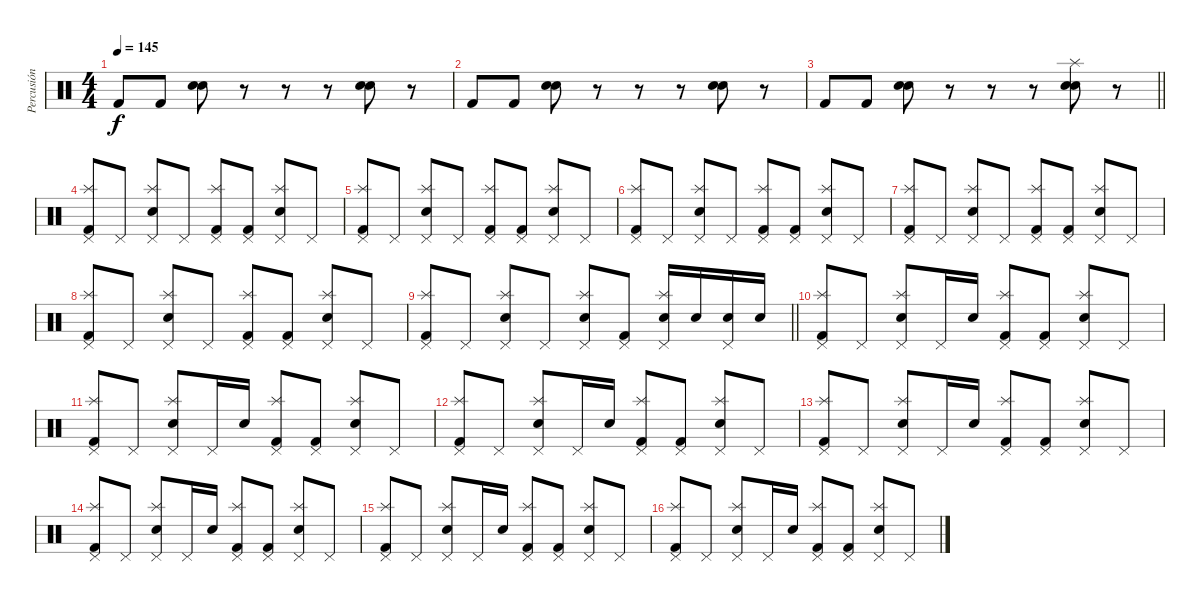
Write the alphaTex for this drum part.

\track ("Percusión" "Percusión") {instrument percussion}
\staff {score}
\articulation defaults
\ts (4 4)
\tempo 145
\clef neutral
\ks c "Kick (hit) 2".8{dy f} "Kick (hit) 2".8
("Electric Snare (hit)" "Electric Snare (hit)").8{bd 60} r.8 r.8 r.8 ("Electric Snare (hit)" "Electric Snare (hit)").8{bd 60} r.8 |
"Kick (hit) 2".8 "Kick (hit) 2".8 ("Electric Snare (hit)" "Electric Snare (hit)").8{bd 60} r.8 r.8 r.8 ("Electric Snare (hit)" "Electric Snare (hit)").8{bd 60} r.8 |
\barLineRight lightlight "Kick (hit) 2".8 "Kick (hit) 2".8
("Electric Snare (hit)" "Electric Snare (hit)").8{bd 60} r.8 r.8 r.8 ("Splash (hit)" "Electric Snare (hit)" "Electric Snare (hit)").8{bd 60} r.8 |
("Splash (hit)" "Pedal Hi-Hat (hit)" "Kick (hit) 2").8 "Pedal Hi-Hat (hit)".8 ("Splash (hit)" "Pedal Hi-Hat (hit)" "Electric Snare (hit)").8 "Pedal Hi-Hat (hit)".8 ("Splash (hit)" "Pedal Hi-Hat (hit)" "Kick (hit) 2").8 ("Pedal Hi-Hat (hit)" "Kick (hit) 2").8 ("Splash (hit)" "Pedal Hi-Hat (hit)" "Electric Snare (hit)").8 "Pedal Hi-Hat (hit)".8 |
("Splash (hit)" "Pedal Hi-Hat (hit)" "Kick (hit) 2").8 "Pedal Hi-Hat (hit)".8 ("Splash (hit)" "Pedal Hi-Hat (hit)" "Electric Snare (hit)").8 "Pedal Hi-Hat (hit)".8 ("Splash (hit)" "Pedal Hi-Hat (hit)" "Kick (hit) 2").8 ("Pedal Hi-Hat (hit)" "Kick (hit) 2").8 ("Splash (hit)" "Pedal Hi-Hat (hit)" "Electric Snare (hit)").8 "Pedal Hi-Hat (hit)".8 |
("Splash (hit)" "Pedal Hi-Hat (hit)" "Kick (hit) 2").8 "Pedal Hi-Hat (hit)".8 ("Splash (hit)" "Pedal Hi-Hat (hit)" "Electric Snare (hit)").8 "Pedal Hi-Hat (hit)".8 ("Splash (hit)" "Pedal Hi-Hat (hit)" "Kick (hit) 2").8 ("Pedal Hi-Hat (hit)" "Kick (hit) 2").8 ("Splash (hit)" "Pedal Hi-Hat (hit)" "Electric Snare (hit)").8 "Pedal Hi-Hat (hit)".8 |
("Splash (hit)" "Pedal Hi-Hat (hit)" "Kick (hit) 2").8 "Pedal Hi-Hat (hit)".8 ("Splash (hit)" "Pedal Hi-Hat (hit)" "Electric Snare (hit)").8 "Pedal Hi-Hat (hit)".8 ("Splash (hit)" "Pedal Hi-Hat (hit)" "Kick (hit) 2").8 ("Pedal Hi-Hat (hit)" "Kick (hit) 2").8 ("Splash (hit)" "Pedal Hi-Hat (hit)" "Electric Snare (hit)").8 "Pedal Hi-Hat (hit)".8 |
("Splash (hit)" "Pedal Hi-Hat (hit)" "Kick (hit) 2").8 "Pedal Hi-Hat (hit)".8 ("Splash (hit)" "Pedal Hi-Hat (hit)" "Electric Snare (hit)").8 "Pedal Hi-Hat (hit)".8 ("Splash (hit)" "Pedal Hi-Hat (hit)" "Kick (hit) 2").8 ("Pedal Hi-Hat (hit)" "Kick (hit) 2").8 ("Splash (hit)" "Pedal Hi-Hat (hit)" "Electric Snare (hit)").8 "Pedal Hi-Hat (hit)".8 |
\barLineRight lightlight
("Splash (hit)" "Pedal Hi-Hat (hit)" "Kick (hit) 2").8 "Pedal Hi-Hat (hit)".8 ("Splash (hit)" "Pedal Hi-Hat (hit)" "Electric Snare (hit)").8 "Pedal Hi-Hat (hit)".8 ("Splash (hit)" "Pedal Hi-Hat (hit)" "Electric Snare (hit)").8 ("Pedal Hi-Hat (hit)" "Kick (hit) 2").8 ("Splash (hit)" "Pedal Hi-Hat (hit)" "Electric Snare (hit)").16 "Electric Snare (hit)".16 ("Pedal Hi-Hat (hit)" "Electric Snare (hit)").16 "Electric Snare (hit)".16 |
("Pedal Hi-Hat (hit)" "Splash (hit)" "Kick (hit) 2").8 "Pedal Hi-Hat (hit)".8 ("Pedal Hi-Hat (hit)" "Splash (hit)" "Electric Snare (hit)").8 "Pedal Hi-Hat (hit)".16 "Electric Snare (hit)".16 ("Pedal Hi-Hat (hit)" "Splash (hit)" "Kick (hit) 2").8 ("Pedal Hi-Hat (hit)" "Kick (hit) 2").8 ("Pedal Hi-Hat (hit)" "Splash (hit)" "Electric Snare (hit)").8 "Pedal Hi-Hat (hit)".8 |
("Pedal Hi-Hat (hit)" "Splash (hit)" "Kick (hit) 2").8 "Pedal Hi-Hat (hit)".8 ("Pedal Hi-Hat (hit)" "Splash (hit)" "Electric Snare (hit)").8 "Pedal Hi-Hat (hit)".16 "Electric Snare (hit)".16 ("Pedal Hi-Hat (hit)" "Splash (hit)" "Kick (hit) 2").8 ("Pedal Hi-Hat (hit)" "Kick (hit) 2").8 ("Pedal Hi-Hat (hit)" "Splash (hit)" "Electric Snare (hit)").8 "Pedal Hi-Hat (hit)".8 |
("Pedal Hi-Hat (hit)" "Splash (hit)" "Kick (hit) 2").8 "Pedal Hi-Hat (hit)".8 ("Pedal Hi-Hat (hit)" "Splash (hit)" "Electric Snare (hit)").8 "Pedal Hi-Hat (hit)".16 "Electric Snare (hit)".16 ("Pedal Hi-Hat (hit)" "Splash (hit)" "Kick (hit) 2").8 ("Pedal Hi-Hat (hit)" "Kick (hit) 2").8 ("Pedal Hi-Hat (hit)" "Splash (hit)" "Electric Snare (hit)").8 "Pedal Hi-Hat (hit)".8 |
("Pedal Hi-Hat (hit)" "Splash (hit)" "Kick (hit) 2").8 "Pedal Hi-Hat (hit)".8 ("Pedal Hi-Hat (hit)" "Splash (hit)" "Electric Snare (hit)").8 "Pedal Hi-Hat (hit)".16 "Electric Snare (hit)".16 ("Pedal Hi-Hat (hit)" "Splash (hit)" "Kick (hit) 2").8 ("Pedal Hi-Hat (hit)" "Kick (hit) 2").8 ("Pedal Hi-Hat (hit)" "Splash (hit)" "Electric Snare (hit)").8 "Pedal Hi-Hat (hit)".8 |
("Pedal Hi-Hat (hit)" "Splash (hit)" "Kick (hit) 2").8 "Pedal Hi-Hat (hit)".8 ("Pedal Hi-Hat (hit)" "Splash (hit)" "Electric Snare (hit)").8 "Pedal Hi-Hat (hit)".16 "Electric Snare (hit)".16 ("Pedal Hi-Hat (hit)" "Splash (hit)" "Kick (hit) 2").8 ("Pedal Hi-Hat (hit)" "Kick (hit) 2").8 ("Pedal Hi-Hat (hit)" "Splash (hit)" "Electric Snare (hit)").8 "Pedal Hi-Hat (hit)".8 |
("Pedal Hi-Hat (hit)" "Splash (hit)" "Kick (hit) 2").8 "Pedal Hi-Hat (hit)".8 ("Pedal Hi-Hat (hit)" "Splash (hit)" "Electric Snare (hit)").8 "Pedal Hi-Hat (hit)".16 "Electric Snare (hit)".16 ("Pedal Hi-Hat (hit)" "Splash (hit)" "Kick (hit) 2").8 ("Pedal Hi-Hat (hit)" "Kick (hit) 2").8 ("Pedal Hi-Hat (hit)" "Splash (hit)" "Electric Snare (hit)").8 "Pedal Hi-Hat (hit)".8 |
("Pedal Hi-Hat (hit)" "Splash (hit)" "Kick (hit) 2").8 "Pedal Hi-Hat (hit)".8 ("Pedal Hi-Hat (hit)" "Splash (hit)" "Electric Snare (hit)").8 "Pedal Hi-Hat (hit)".16 "Electric Snare (hit)".16 ("Pedal Hi-Hat (hit)" "Splash (hit)" "Kick (hit) 2").8 ("Pedal Hi-Hat (hit)" "Kick (hit) 2").8 ("Pedal Hi-Hat (hit)" "Splash (hit)" "Electric Snare (hit)").8 "Pedal Hi-Hat (hit)".8
